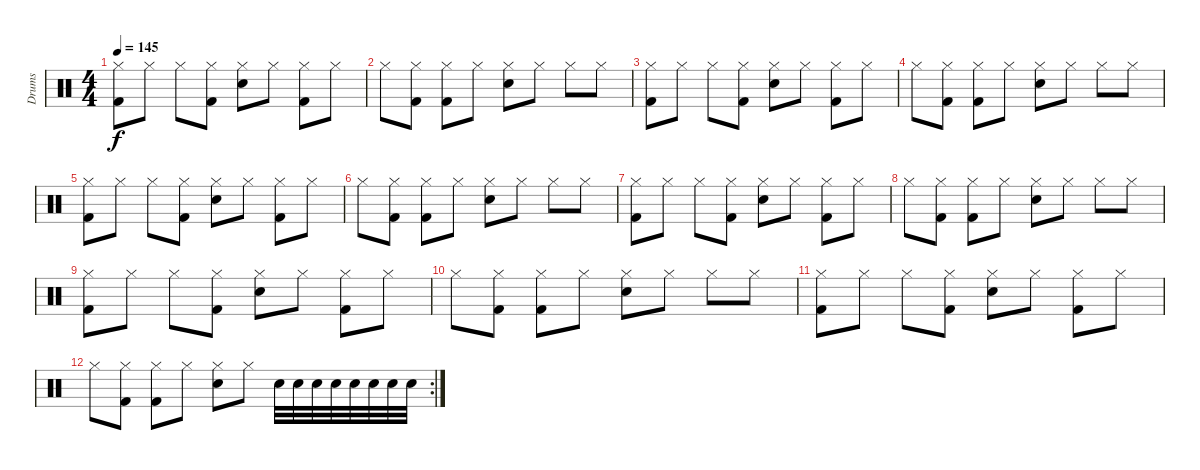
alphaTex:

\track ("Drums" "Drums") {instrument percussion}
\staff {score}
\articulation defaults
\ts (4 4)
\tempo 145
\clef neutral
\ks c
("Kick (hit) 2" "Hi-Hat (closed)").8{dy f} "Hi-Hat (closed)".8 "Hi-Hat (closed)".8 ("Kick (hit) 2" "Hi-Hat (closed)").8 ("Electric Snare (hit)" "Hi-Hat (closed)").8 "Hi-Hat (closed)".8 ("Kick (hit) 2" "Hi-Hat (closed)").8 "Hi-Hat (closed)".8 |
"Hi-Hat (closed)".8 ("Kick (hit) 2" "Hi-Hat (closed)").8 ("Kick (hit) 2" "Hi-Hat (closed)").8 "Hi-Hat (closed)".8 ("Electric Snare (hit)" "Hi-Hat (closed)").8 "Hi-Hat (closed)".8 "Hi-Hat (closed)".8 "Hi-Hat (closed)".8 |
("Kick (hit) 2" "Hi-Hat (closed)").8 "Hi-Hat (closed)".8 "Hi-Hat (closed)".8 ("Kick (hit) 2" "Hi-Hat (closed)").8 ("Electric Snare (hit)" "Hi-Hat (closed)").8 "Hi-Hat (closed)".8 ("Kick (hit) 2" "Hi-Hat (closed)").8 "Hi-Hat (closed)".8 |
"Hi-Hat (closed)".8 ("Kick (hit) 2" "Hi-Hat (closed)").8 ("Kick (hit) 2" "Hi-Hat (closed)").8 "Hi-Hat (closed)".8 ("Electric Snare (hit)" "Hi-Hat (closed)").8 "Hi-Hat (closed)".8 "Hi-Hat (closed)".8 "Hi-Hat (closed)".8 |
("Kick (hit) 2" "Hi-Hat (closed)").8 "Hi-Hat (closed)".8 "Hi-Hat (closed)".8 ("Kick (hit) 2" "Hi-Hat (closed)").8 ("Electric Snare (hit)" "Hi-Hat (closed)").8 "Hi-Hat (closed)".8 ("Kick (hit) 2" "Hi-Hat (closed)").8 "Hi-Hat (closed)".8 |
"Hi-Hat (closed)".8 ("Kick (hit) 2" "Hi-Hat (closed)").8 ("Kick (hit) 2" "Hi-Hat (closed)").8 "Hi-Hat (closed)".8 ("Electric Snare (hit)" "Hi-Hat (closed)").8 "Hi-Hat (closed)".8 "Hi-Hat (closed)".8 "Hi-Hat (closed)".8 |
("Kick (hit) 2" "Hi-Hat (closed)").8 "Hi-Hat (closed)".8 "Hi-Hat (closed)".8 ("Kick (hit) 2" "Hi-Hat (closed)").8 ("Electric Snare (hit)" "Hi-Hat (closed)").8 "Hi-Hat (closed)".8 ("Kick (hit) 2" "Hi-Hat (closed)").8 "Hi-Hat (closed)".8 |
"Hi-Hat (closed)".8 ("Kick (hit) 2" "Hi-Hat (closed)").8 ("Kick (hit) 2" "Hi-Hat (closed)").8 "Hi-Hat (closed)".8 ("Electric Snare (hit)" "Hi-Hat (closed)").8 "Hi-Hat (closed)".8 "Hi-Hat (closed)".8 "Hi-Hat (closed)".8 |
("Kick (hit) 2" "Hi-Hat (closed)").8 "Hi-Hat (closed)".8 "Hi-Hat (closed)".8 ("Kick (hit) 2" "Hi-Hat (closed)").8 ("Electric Snare (hit)" "Hi-Hat (closed)").8 "Hi-Hat (closed)".8 ("Kick (hit) 2" "Hi-Hat (closed)").8 "Hi-Hat (closed)".8 |
"Hi-Hat (closed)".8 ("Kick (hit) 2" "Hi-Hat (closed)").8 ("Kick (hit) 2" "Hi-Hat (closed)").8 "Hi-Hat (closed)".8 ("Electric Snare (hit)" "Hi-Hat (closed)").8 "Hi-Hat (closed)".8 "Hi-Hat (closed)".8 "Hi-Hat (closed)".8 |
("Kick (hit) 2" "Hi-Hat (closed)").8 "Hi-Hat (closed)".8 "Hi-Hat (closed)".8 ("Kick (hit) 2" "Hi-Hat (closed)").8 ("Electric Snare (hit)" "Hi-Hat (closed)").8 "Hi-Hat (closed)".8 ("Kick (hit) 2" "Hi-Hat (closed)").8 "Hi-Hat (closed)".8 |
\rc 2 "Hi-Hat (closed)".8
("Kick (hit) 2" "Hi-Hat (closed)").8 ("Kick (hit) 2" "Hi-Hat (closed)").8 "Hi-Hat (closed)".8 ("Electric Snare (hit)" "Hi-Hat (closed)").8 "Hi-Hat (closed)".8 "Electric Snare (hit)".32 "Electric Snare (hit)".32 "Electric Snare (hit)".32 "Electric Snare (hit)".32 "Electric Snare (hit)".32 "Electric Snare (hit)".32 "Electric Snare (hit)".32 "Electric Snare (hit)".32
